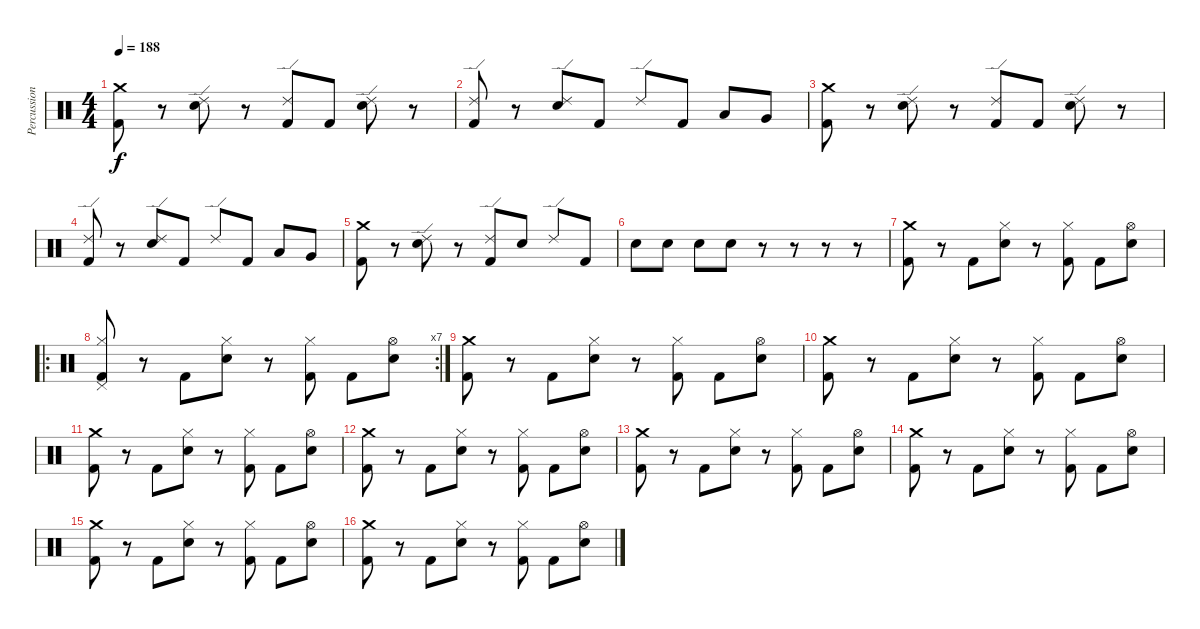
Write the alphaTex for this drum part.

\track ("Percussion" "Percussion") {instrument percussion}
\staff {score}
\articulation defaults
\ts (4 4)
\tempo 188
\clef neutral
\ks c
("Crash medium (hit)" "Kick (hit) 2").8{dy f} r.8 ("Ride (edge) 2" "Snare (hit) 2").8 r.8 ("Ride (edge) 2" "Kick (hit) 2").8 "Kick (hit) 2".8 ("Ride (edge) 2" "Snare (hit) 2").8 r.8 |
("Ride (edge) 2" "Kick (hit) 2").8 r.8 ("Ride (edge) 2" "Snare (hit) 2").8 "Kick (hit) 2".8 "Ride (edge) 2".8 "Kick (hit) 2".8 "Low Tom (hit)".8 "Very Low Tom (hit)".8 |
("Crash medium (hit)" "Kick (hit) 2").8 r.8 ("Ride (edge) 2" "Snare (hit) 2").8 r.8 ("Ride (edge) 2" "Kick (hit) 2").8 "Kick (hit) 2".8 ("Ride (edge) 2" "Snare (hit) 2").8 r.8 |
("Ride (edge) 2" "Kick (hit) 2").8 r.8 ("Ride (edge) 2" "Snare (hit) 2").8 "Kick (hit) 2".8 "Ride (edge) 2".8 "Kick (hit) 2".8 "Low Tom (hit)".8 "Very Low Tom (hit)".8 |
("Crash medium (hit)" "Kick (hit) 2").8 r.8 ("Ride (edge) 2" "Snare (hit) 2").8 r.8 ("Ride (edge) 2" "Kick (hit) 2").8 "Snare (hit) 2".8 "Ride (edge) 2".8 "Kick (hit) 2".8 |
"Snare (hit) 2".8 "Snare (hit) 2".8 "Snare (hit) 2".8 "Snare (hit) 2".8 r.8 r.8 r.8 r.8 |
("Crash medium (hit)" "Kick (hit) 2").8 r.8 "Kick (hit) 2".8 ("Hi-Hat (closed)" "Snare (hit) 2").8 r.8 ("Hi-Hat (closed)" "Kick (hit) 2").8 "Kick (hit) 2".8 ("Hi-Hat (open)" "Snare (hit) 2").8 |
\ro
\rc 7
("Pedal Hi-Hat (hit)" "Hi-Hat (closed)" "Kick (hit) 2").8 r.8 "Kick (hit) 2".8 ("Hi-Hat (closed)" "Snare (hit) 2").8 r.8 ("Hi-Hat (closed)" "Kick (hit) 2").8 "Kick (hit) 2".8 ("Hi-Hat (open)" "Snare (hit) 2").8 |
("Crash medium (hit)" "Kick (hit) 2").8 r.8 "Kick (hit) 2".8 ("Hi-Hat (closed)" "Snare (hit) 2").8 r.8 ("Hi-Hat (closed)" "Kick (hit) 2").8 "Kick (hit) 2".8 ("Hi-Hat (open)" "Snare (hit) 2").8 |
("Crash medium (hit)" "Kick (hit) 2").8 r.8 "Kick (hit) 2".8 ("Hi-Hat (closed)" "Snare (hit) 2").8 r.8 ("Hi-Hat (closed)" "Kick (hit) 2").8 "Kick (hit) 2".8 ("Hi-Hat (open)" "Snare (hit) 2").8 |
("Crash medium (hit)" "Kick (hit) 2").8 r.8 "Kick (hit) 2".8 ("Hi-Hat (closed)" "Snare (hit) 2").8 r.8 ("Hi-Hat (closed)" "Kick (hit) 2").8 "Kick (hit) 2".8 ("Hi-Hat (open)" "Snare (hit) 2").8 |
("Crash medium (hit)" "Kick (hit) 2").8 r.8 "Kick (hit) 2".8 ("Hi-Hat (closed)" "Snare (hit) 2").8 r.8 ("Hi-Hat (closed)" "Kick (hit) 2").8 "Kick (hit) 2".8 ("Hi-Hat (open)" "Snare (hit) 2").8 |
("Crash medium (hit)" "Kick (hit) 2").8 r.8 "Kick (hit) 2".8 ("Hi-Hat (closed)" "Snare (hit) 2").8 r.8 ("Hi-Hat (closed)" "Kick (hit) 2").8 "Kick (hit) 2".8 ("Hi-Hat (open)" "Snare (hit) 2").8 |
("Crash medium (hit)" "Kick (hit) 2").8 r.8 "Kick (hit) 2".8 ("Hi-Hat (closed)" "Snare (hit) 2").8 r.8 ("Hi-Hat (closed)" "Kick (hit) 2").8 "Kick (hit) 2".8 ("Hi-Hat (open)" "Snare (hit) 2").8 |
("Crash medium (hit)" "Kick (hit) 2").8 r.8 "Kick (hit) 2".8 ("Hi-Hat (closed)" "Snare (hit) 2").8 r.8 ("Hi-Hat (closed)" "Kick (hit) 2").8 "Kick (hit) 2".8 ("Hi-Hat (open)" "Snare (hit) 2").8 |
("Crash medium (hit)" "Kick (hit) 2").8 r.8 "Kick (hit) 2".8 ("Hi-Hat (closed)" "Snare (hit) 2").8 r.8 ("Hi-Hat (closed)" "Kick (hit) 2").8 "Kick (hit) 2".8 ("Hi-Hat (open)" "Snare (hit) 2").8
